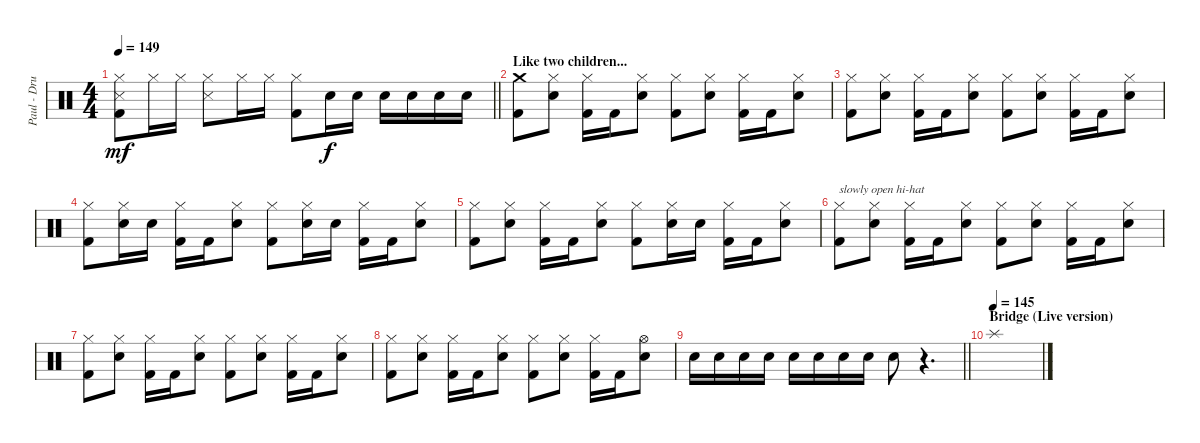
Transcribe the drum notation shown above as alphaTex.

\track ("Paul - Drums" "Paul - Dru") {instrument percussion}
\staff {score}
\articulation defaults
\ts (4 4)
\tempo 149
\clef neutral
\barLineRight lightlight
\ks c
("Hi-Hat (closed)" "Snare (side stick) 3" "Kick (hit) 2").8{dy mf} "Hi-Hat (closed)".16 "Hi-Hat (closed)".16 ("Hi-Hat (closed)" "Snare (side stick) 3").8 "Hi-Hat (closed)".16 "Hi-Hat (closed)".16 ("Hi-Hat (closed)" "Kick (hit) 2").8 "Electric Snare (hit)".16{dy f} "Electric Snare (hit)".16 "Electric Snare (hit)".16 "Electric Snare (hit)".16 "Electric Snare (hit)".16 "Electric Snare (hit)".16 |
\section ("" "Like two children...")
("Crash medium (hit)" "Kick (hit) 2").8 ("Hi-Hat (closed)" "Electric Snare (hit)").8 ("Hi-Hat (closed)" "Kick (hit) 2").16 "Kick (hit) 2".16 ("Hi-Hat (closed)" "Electric Snare (hit)").8 ("Hi-Hat (closed)" "Kick (hit) 2").8 ("Hi-Hat (closed)" "Electric Snare (hit)").8 ("Hi-Hat (closed)" "Kick (hit) 2").16 "Kick (hit) 2".16 ("Hi-Hat (closed)" "Electric Snare (hit)").8 |
("Hi-Hat (closed)" "Kick (hit) 2").8 ("Hi-Hat (closed)" "Electric Snare (hit)").8 ("Hi-Hat (closed)" "Kick (hit) 2").16 "Kick (hit) 2".16 ("Hi-Hat (closed)" "Electric Snare (hit)").8 ("Hi-Hat (closed)" "Kick (hit) 2").8 ("Hi-Hat (closed)" "Electric Snare (hit)").8 ("Hi-Hat (closed)" "Kick (hit) 2").16 "Kick (hit) 2".16 ("Hi-Hat (closed)" "Electric Snare (hit)").8 |
("Hi-Hat (closed)" "Kick (hit) 2").8 ("Hi-Hat (closed)" "Electric Snare (hit)").16 "Electric Snare (hit)".16 ("Hi-Hat (closed)" "Kick (hit) 2").16 "Kick (hit) 2".16 ("Hi-Hat (closed)" "Electric Snare (hit)").8 ("Hi-Hat (closed)" "Kick (hit) 2").8 ("Hi-Hat (closed)" "Electric Snare (hit)").16 "Electric Snare (hit)".16 ("Hi-Hat (closed)" "Kick (hit) 2").16 "Kick (hit) 2".16 ("Hi-Hat (closed)" "Electric Snare (hit)").8 |
("Hi-Hat (closed)" "Kick (hit) 2").8 ("Hi-Hat (closed)" "Electric Snare (hit)").8 ("Hi-Hat (closed)" "Kick (hit) 2").16 "Kick (hit) 2".16 ("Hi-Hat (closed)" "Electric Snare (hit)").8 ("Hi-Hat (closed)" "Kick (hit) 2").8 ("Hi-Hat (closed)" "Electric Snare (hit)").16 "Electric Snare (hit)".16 ("Hi-Hat (closed)" "Kick (hit) 2").16 "Kick (hit) 2".16 ("Hi-Hat (closed)" "Electric Snare (hit)").8 |
("Hi-Hat (closed)" "Kick (hit) 2").8{txt "slowly open hi-hat"} ("Hi-Hat (closed)" "Electric Snare (hit)").8 ("Hi-Hat (closed)" "Kick (hit) 2").16 "Kick (hit) 2".16 ("Hi-Hat (closed)" "Electric Snare (hit)").8 ("Hi-Hat (closed)" "Kick (hit) 2").8 ("Hi-Hat (closed)" "Electric Snare (hit)").8 ("Hi-Hat (closed)" "Kick (hit) 2").16 "Kick (hit) 2".16 ("Hi-Hat (closed)" "Electric Snare (hit)").8 |
("Hi-Hat (closed)" "Kick (hit) 2").8 ("Hi-Hat (closed)" "Electric Snare (hit)").8 ("Hi-Hat (closed)" "Kick (hit) 2").16 "Kick (hit) 2".16 ("Hi-Hat (closed)" "Electric Snare (hit)").8 ("Hi-Hat (closed)" "Kick (hit) 2").8 ("Hi-Hat (closed)" "Electric Snare (hit)").8 ("Hi-Hat (closed)" "Kick (hit) 2").16 "Kick (hit) 2".16 ("Hi-Hat (closed)" "Electric Snare (hit)").8 |
("Hi-Hat (closed)" "Kick (hit) 2").8 ("Hi-Hat (closed)" "Electric Snare (hit)").8 ("Hi-Hat (closed)" "Kick (hit) 2").16 "Kick (hit) 2".16 ("Hi-Hat (closed)" "Electric Snare (hit)").8 ("Hi-Hat (closed)" "Kick (hit) 2").8 ("Hi-Hat (closed)" "Electric Snare (hit)").8 ("Hi-Hat (closed)" "Kick (hit) 2").16 "Kick (hit) 2".16 ("Hi-Hat (open)" "Electric Snare (hit)").8 |
\barLineRight lightlight "Electric Snare (hit)".16 "Electric Snare (hit)".16 "Electric Snare (hit)".16 "Electric Snare (hit)".16 "Electric Snare (hit)".16 "Electric Snare (hit)".16 "Electric Snare (hit)".16 "Electric Snare (hit)".16 "Electric Snare (hit)".8
r.4{d} |
\section ("" "Bridge (Live version)")
\tempo (145)
"Splash (hit)".1
